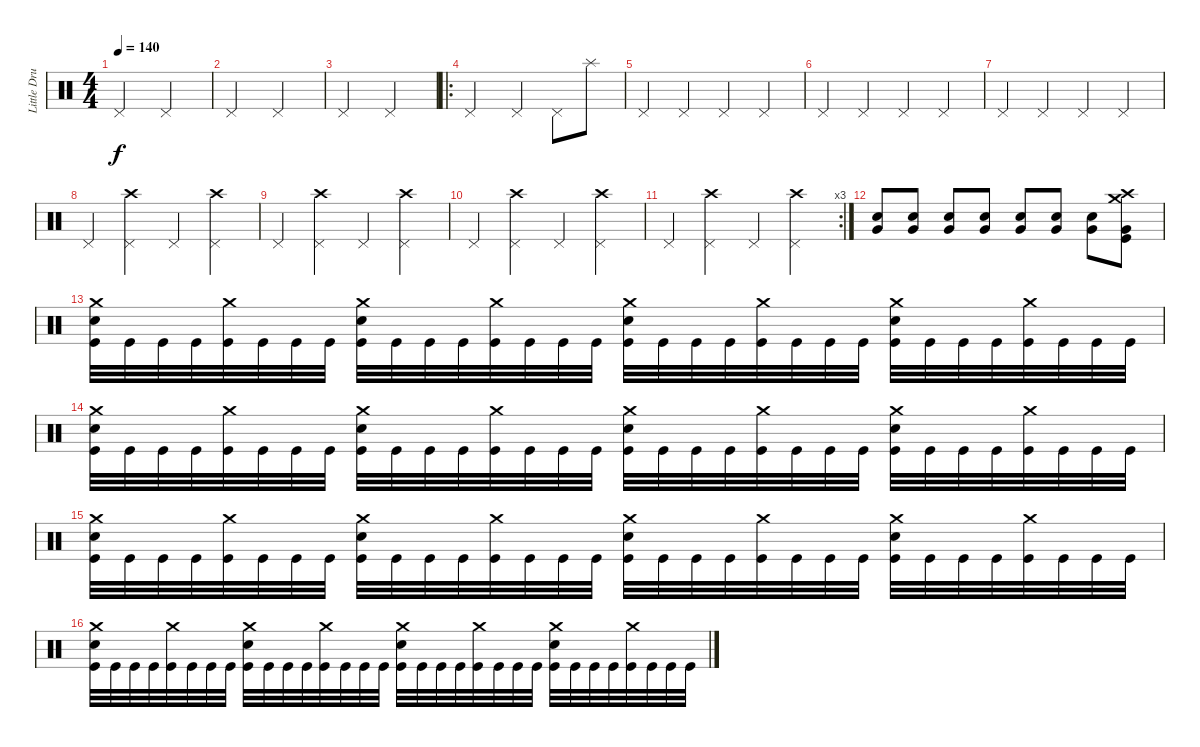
\track ("Little Drummer Boy" "Little Dru") {instrument percussion}
\staff {score}
\articulation defaults
\ts (4 4)
\tempo 140
\clef neutral
\ks c "Pedal Hi-Hat (hit)".2{dy f} "Pedal Hi-Hat (hit)".2
|
"Pedal Hi-Hat (hit)".2 "Pedal Hi-Hat (hit)".2 |
"Pedal Hi-Hat (hit)".2 "Pedal Hi-Hat (hit)".2 |
\ro "Pedal Hi-Hat (hit)".2 "Pedal Hi-Hat (hit)".4 "Pedal Hi-Hat (hit)".8 "Splash (hit)".8
|
"Pedal Hi-Hat (hit)".4 "Pedal Hi-Hat (hit)".4 "Pedal Hi-Hat (hit)".4 "Pedal Hi-Hat (hit)".4 |
"Pedal Hi-Hat (hit)".4 "Pedal Hi-Hat (hit)".4 "Pedal Hi-Hat (hit)".4 "Pedal Hi-Hat (hit)".4 |
"Pedal Hi-Hat (hit)".4 "Pedal Hi-Hat (hit)".4 "Pedal Hi-Hat (hit)".4 "Pedal Hi-Hat (hit)".4 |
"Pedal Hi-Hat (hit)".4 ("Crash high (hit)" "Pedal Hi-Hat (hit)").4 "Pedal Hi-Hat (hit)".4 ("Crash high (hit)" "Pedal Hi-Hat (hit)").4 |
"Pedal Hi-Hat (hit)".4 ("Crash high (hit)" "Pedal Hi-Hat (hit)").4 "Pedal Hi-Hat (hit)".4 ("Crash high (hit)" "Pedal Hi-Hat (hit)").4 |
"Pedal Hi-Hat (hit)".4 ("Crash high (hit)" "Pedal Hi-Hat (hit)").4 "Pedal Hi-Hat (hit)".4 ("Crash high (hit)" "Pedal Hi-Hat (hit)").4 |
\rc 3 "Pedal Hi-Hat (hit)".4
("Crash high (hit)" "Pedal Hi-Hat (hit)").4 "Pedal Hi-Hat (hit)".4 ("Crash high (hit)" "Pedal Hi-Hat (hit)").4 |
("Snare (hit) 2" "Very Low Tom (hit)").8 ("Snare (hit) 2" "Very Low Tom (hit)").8 ("Snare (hit) 2" "Very Low Tom (hit)").8 ("Snare (hit) 2" "Very Low Tom (hit)").8 ("Snare (hit) 2" "Very Low Tom (hit)").8 ("Snare (hit) 2" "Very Low Tom (hit)").8 ("Snare (hit) 2" "Very Low Tom (hit)").8 ("Crash high (hit)" "Crash medium (hit)" "Kick (hit)" "Very Low Tom (hit)").8 |
("Crash medium (hit)" "Snare (hit) 2" "Kick (hit)").32 "Kick (hit)".32 "Kick (hit)".32 "Kick (hit)".32 ("Crash medium (hit)" "Kick (hit)").32 "Kick (hit)".32 "Kick (hit)".32 "Kick (hit)".32 ("Crash medium (hit)" "Snare (hit) 2" "Kick (hit)").32 "Kick (hit)".32 "Kick (hit)".32 "Kick (hit)".32 ("Crash medium (hit)" "Kick (hit)").32 "Kick (hit)".32 "Kick (hit)".32 "Kick (hit)".32 ("Crash medium (hit)" "Snare (hit) 2" "Kick (hit)").32 "Kick (hit)".32 "Kick (hit)".32 "Kick (hit)".32 ("Crash medium (hit)" "Kick (hit)").32 "Kick (hit)".32 "Kick (hit)".32 "Kick (hit)".32 ("Crash medium (hit)" "Snare (hit) 2" "Kick (hit)").32 "Kick (hit)".32 "Kick (hit)".32 "Kick (hit)".32 ("Crash medium (hit)" "Kick (hit)").32 "Kick (hit)".32 "Kick (hit)".32 "Kick (hit)".32 |
("Crash medium (hit)" "Snare (hit) 2" "Kick (hit)").32 "Kick (hit)".32 "Kick (hit)".32 "Kick (hit)".32 ("Crash medium (hit)" "Kick (hit)").32 "Kick (hit)".32 "Kick (hit)".32 "Kick (hit)".32 ("Crash medium (hit)" "Snare (hit) 2" "Kick (hit)").32 "Kick (hit)".32 "Kick (hit)".32 "Kick (hit)".32 ("Crash medium (hit)" "Kick (hit)").32 "Kick (hit)".32 "Kick (hit)".32 "Kick (hit)".32 ("Crash medium (hit)" "Snare (hit) 2" "Kick (hit)").32 "Kick (hit)".32 "Kick (hit)".32 "Kick (hit)".32 ("Crash medium (hit)" "Kick (hit)").32 "Kick (hit)".32 "Kick (hit)".32 "Kick (hit)".32 ("Crash medium (hit)" "Snare (hit) 2" "Kick (hit)").32 "Kick (hit)".32 "Kick (hit)".32 "Kick (hit)".32 ("Crash medium (hit)" "Kick (hit)").32 "Kick (hit)".32 "Kick (hit)".32 "Kick (hit)".32 |
("Crash medium (hit)" "Snare (hit) 2" "Kick (hit)").32 "Kick (hit)".32 "Kick (hit)".32 "Kick (hit)".32 ("Crash medium (hit)" "Kick (hit)").32 "Kick (hit)".32 "Kick (hit)".32 "Kick (hit)".32 ("Crash medium (hit)" "Snare (hit) 2" "Kick (hit)").32 "Kick (hit)".32 "Kick (hit)".32 "Kick (hit)".32 ("Crash medium (hit)" "Kick (hit)").32 "Kick (hit)".32 "Kick (hit)".32 "Kick (hit)".32 ("Crash medium (hit)" "Snare (hit) 2" "Kick (hit)").32 "Kick (hit)".32 "Kick (hit)".32 "Kick (hit)".32 ("Crash medium (hit)" "Kick (hit)").32 "Kick (hit)".32 "Kick (hit)".32 "Kick (hit)".32 ("Crash medium (hit)" "Snare (hit) 2" "Kick (hit)").32 "Kick (hit)".32 "Kick (hit)".32 "Kick (hit)".32 ("Crash medium (hit)" "Kick (hit)").32 "Kick (hit)".32 "Kick (hit)".32 "Kick (hit)".32 |
("Crash medium (hit)" "Snare (hit) 2" "Kick (hit)").32 "Kick (hit)".32 "Kick (hit)".32 "Kick (hit)".32 ("Crash medium (hit)" "Kick (hit)").32 "Kick (hit)".32 "Kick (hit)".32 "Kick (hit)".32 ("Crash medium (hit)" "Snare (hit) 2" "Kick (hit)").32 "Kick (hit)".32 "Kick (hit)".32 "Kick (hit)".32 ("Crash medium (hit)" "Kick (hit)").32 "Kick (hit)".32 "Kick (hit)".32 "Kick (hit)".32 ("Crash medium (hit)" "Snare (hit) 2" "Kick (hit)").32 "Kick (hit)".32 "Kick (hit)".32 "Kick (hit)".32 ("Crash medium (hit)" "Kick (hit)").32 "Kick (hit)".32 "Kick (hit)".32 "Kick (hit)".32 ("Crash medium (hit)" "Snare (hit) 2" "Kick (hit)").32 "Kick (hit)".32 "Kick (hit)".32 "Kick (hit)".32 ("Crash medium (hit)" "Kick (hit)").32 "Kick (hit)".32 "Kick (hit)".32 "Kick (hit)".32
